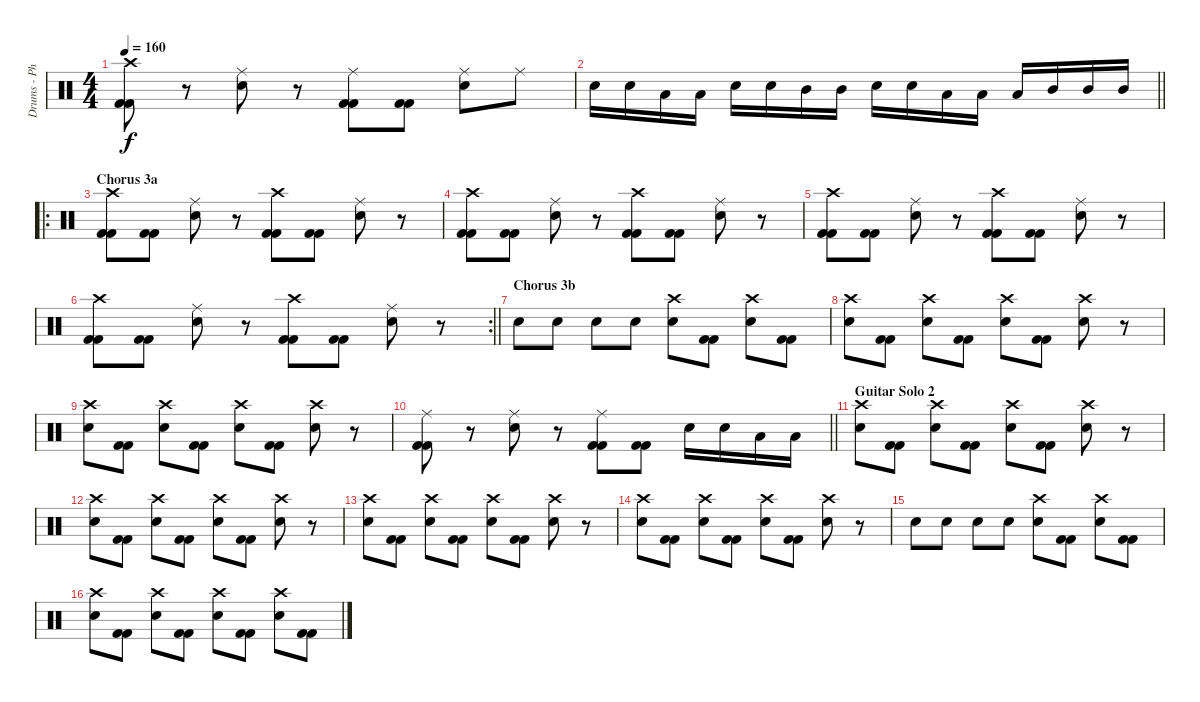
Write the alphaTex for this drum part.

\track ("Drums - Philipp Wirth" "Drums - Ph") {instrument percussion}
\staff {score}
\articulation defaults
\ts (4 4)
\tempo 160
\clef neutral
\ks c
("Crash high (hit)" "Kick (hit) 2" "Kick (hit) 2").8{dy f} r.8 ("Ride (middle)" "Electric Snare (hit)").8 r.8 ("Ride (middle)" "Kick (hit) 2" "Kick (hit) 2").8 ("Kick (hit) 2" "Kick (hit) 2").8 ("Ride (middle)" "Electric Snare (hit)").8 "Ride (middle)".8 |
\barLineRight lightlight "Electric Snare (hit)".16 "Electric Snare (hit)".16 "Low Tom (hit)".16 "Low Tom (hit)".16 "Electric Snare (hit)".16 "Electric Snare (hit)".16 "Mid Tom (hit)".16 "Mid Tom (hit)".16 "Electric Snare (hit)".16 "Electric Snare (hit)".16 "Low Tom (hit)".16 "Low Tom (hit)".16 "Low Tom (hit)".16 "Mid Tom (hit)".16 "Mid Tom (hit)".16 "Mid Tom (hit)".16
|
\ro
\section ("" "Chorus 3a")
("Crash high (hit)" "Kick (hit) 2" "Kick (hit) 2").8 ("Kick (hit) 2" "Kick (hit) 2").8 ("Ride (middle)" "Electric Snare (hit)").8 r.8 ("Crash high (hit)" "Kick (hit) 2" "Kick (hit) 2").8 ("Kick (hit) 2" "Kick (hit) 2").8 ("Ride (middle)" "Electric Snare (hit)").8 r.8 |
("Crash high (hit)" "Kick (hit) 2" "Kick (hit) 2").8 ("Kick (hit) 2" "Kick (hit) 2").8 ("Ride (middle)" "Electric Snare (hit)").8 r.8 ("Crash high (hit)" "Kick (hit) 2" "Kick (hit) 2").8 ("Kick (hit) 2" "Kick (hit) 2").8 ("Ride (middle)" "Electric Snare (hit)").8 r.8 |
("Crash high (hit)" "Kick (hit) 2" "Kick (hit) 2").8 ("Kick (hit) 2" "Kick (hit) 2").8 ("Ride (middle)" "Electric Snare (hit)").8 r.8 ("Crash high (hit)" "Kick (hit) 2" "Kick (hit) 2").8 ("Kick (hit) 2" "Kick (hit) 2").8 ("Ride (middle)" "Electric Snare (hit)").8 r.8 |
\rc 2
\barLineRight lightlight
("Crash high (hit)" "Kick (hit) 2" "Kick (hit) 2").8 ("Kick (hit) 2" "Kick (hit) 2").8 ("Ride (middle)" "Electric Snare (hit)").8 r.8 ("Crash high (hit)" "Kick (hit) 2" "Kick (hit) 2").8 ("Kick (hit) 2" "Kick (hit) 2").8 ("Ride (middle)" "Electric Snare (hit)").8 r.8 |
\section ("" "Chorus 3b")
"Electric Snare (hit)".8 "Electric Snare (hit)".8 "Electric Snare (hit)".8 "Electric Snare (hit)".8 ("Crash high (hit)" "Electric Snare (hit)").8 ("Kick (hit) 2" "Kick (hit) 2").8 ("Crash high (hit)" "Electric Snare (hit)").8 ("Kick (hit) 2" "Kick (hit) 2").8 |
("Crash high (hit)" "Electric Snare (hit)").8 ("Kick (hit) 2" "Kick (hit) 2").8 ("Crash high (hit)" "Electric Snare (hit)").8 ("Kick (hit) 2" "Kick (hit) 2").8 ("Crash high (hit)" "Electric Snare (hit)").8 ("Kick (hit) 2" "Kick (hit) 2").8 ("Crash high (hit)" "Electric Snare (hit)").8 r.8 |
("Crash high (hit)" "Electric Snare (hit)").8 ("Kick (hit) 2" "Kick (hit) 2").8 ("Crash high (hit)" "Electric Snare (hit)").8 ("Kick (hit) 2" "Kick (hit) 2").8 ("Crash high (hit)" "Electric Snare (hit)").8 ("Kick (hit) 2" "Kick (hit) 2").8 ("Crash high (hit)" "Electric Snare (hit)").8 r.8 |
\barLineRight lightlight
("Ride (middle)" "Kick (hit) 2" "Kick (hit) 2").8 r.8 ("Ride (middle)" "Electric Snare (hit)").8 r.8 ("Ride (middle)" "Kick (hit) 2" "Kick (hit) 2").8 ("Kick (hit) 2" "Kick (hit) 2").8 "Electric Snare (hit)".16 "Electric Snare (hit)".16 "Low Tom (hit)".16 "Low Tom (hit)".16 |
\section ("" "Guitar Solo 2")
("Crash high (hit)" "Electric Snare (hit)").8 ("Kick (hit) 2" "Kick (hit) 2").8 ("Crash high (hit)" "Electric Snare (hit)").8 ("Kick (hit) 2" "Kick (hit) 2").8 ("Crash high (hit)" "Electric Snare (hit)").8 ("Kick (hit) 2" "Kick (hit) 2").8 ("Crash high (hit)" "Electric Snare (hit)").8 r.8 |
("Crash high (hit)" "Electric Snare (hit)").8 ("Kick (hit) 2" "Kick (hit) 2").8 ("Crash high (hit)" "Electric Snare (hit)").8 ("Kick (hit) 2" "Kick (hit) 2").8 ("Crash high (hit)" "Electric Snare (hit)").8 ("Kick (hit) 2" "Kick (hit) 2").8 ("Crash high (hit)" "Electric Snare (hit)").8 r.8 |
("Crash high (hit)" "Electric Snare (hit)").8 ("Kick (hit) 2" "Kick (hit) 2").8 ("Crash high (hit)" "Electric Snare (hit)").8 ("Kick (hit) 2" "Kick (hit) 2").8 ("Crash high (hit)" "Electric Snare (hit)").8 ("Kick (hit) 2" "Kick (hit) 2").8 ("Crash high (hit)" "Electric Snare (hit)").8 r.8 |
("Crash high (hit)" "Electric Snare (hit)").8 ("Kick (hit) 2" "Kick (hit) 2").8 ("Crash high (hit)" "Electric Snare (hit)").8 ("Kick (hit) 2" "Kick (hit) 2").8 ("Crash high (hit)" "Electric Snare (hit)").8 ("Kick (hit) 2" "Kick (hit) 2").8 ("Crash high (hit)" "Electric Snare (hit)").8 r.8 |
"Electric Snare (hit)".8 "Electric Snare (hit)".8 "Electric Snare (hit)".8 "Electric Snare (hit)".8 ("Crash high (hit)" "Electric Snare (hit)").8 ("Kick (hit) 2" "Kick (hit) 2").8 ("Crash high (hit)" "Electric Snare (hit)").8 ("Kick (hit) 2" "Kick (hit) 2").8 |
("Crash high (hit)" "Electric Snare (hit)").8 ("Kick (hit) 2" "Kick (hit) 2").8 ("Crash high (hit)" "Electric Snare (hit)").8 ("Kick (hit) 2" "Kick (hit) 2").8 ("Crash high (hit)" "Electric Snare (hit)").8 ("Kick (hit) 2" "Kick (hit) 2").8 ("Crash high (hit)" "Electric Snare (hit)").8 ("Kick (hit) 2" "Kick (hit) 2").8
